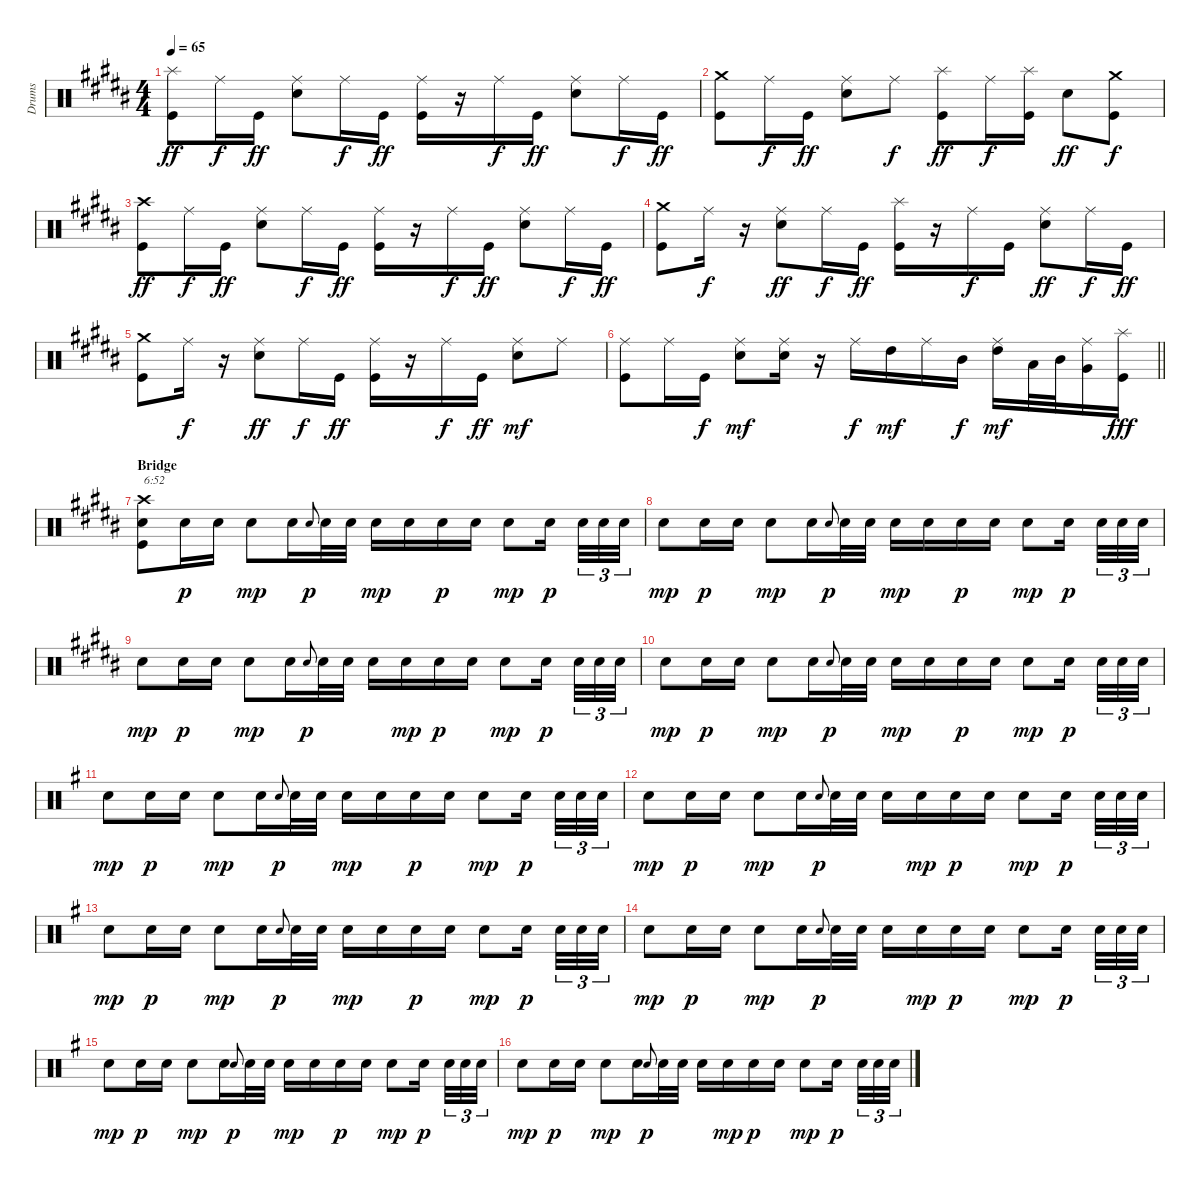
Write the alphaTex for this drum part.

\track ("Drums" "Drums") {instrument percussion}
\staff {score}
\articulation defaults
\ts (4 4)
\tempo 65
\clef neutral
\ks b
("Splash (hit)" "Kick (hit)").8{dy ff} "Ride (middle)".16{dy f} "Kick (hit)".16{dy ff} ("Ride (middle)" "Electric Snare (hit)").8 "Ride (middle)".16{dy f} "Kick (hit)".16{dy ff} ("Ride (middle)" "Kick (hit)").16 r.16 "Ride (middle)".16{dy f} "Kick (hit)".16{dy ff} ("Ride (middle)" "Electric Snare (hit)").8 "Ride (middle)".16{dy f} "Kick (hit)".16{dy ff} |
("Crash medium (hit)" "Kick (hit)").8 "Ride (middle)".16{dy f} "Kick (hit)".16{dy ff} ("Ride (middle)" "Electric Snare (hit)").8 "Ride (middle)".8{dy f} ("Splash (hit)" "Kick (hit)").8{dy ff} "Ride (middle)".16{dy f} ("Splash (hit)" "Kick (hit)").16 "Electric Snare (hit)".8{dy ff} ("Crash medium (hit)" "Kick (hit)").8{dy f} |
("Crash high (hit)" "Kick (hit)").8{dy ff} "Ride (middle)".16{dy f} "Kick (hit)".16{dy ff} ("Ride (middle)" "Electric Snare (hit)").8 "Ride (middle)".16{dy f} "Kick (hit)".16{dy ff} ("Ride (middle)" "Kick (hit)").16 r.16 "Ride (middle)".16{dy f} "Kick (hit)".16{dy ff} ("Ride (middle)" "Electric Snare (hit)").8 "Ride (middle)".16{dy f} "Kick (hit)".16{dy ff} |
("Crash medium (hit)" "Kick (hit)").8 "Ride (middle)".16{dy f} r.16 ("Ride (middle)" "Electric Snare (hit)").8{dy ff} "Ride (middle)".16{dy f} "Kick (hit)".16{dy ff} ("Splash (hit)" "Kick (hit)").16 r.16 "Ride (middle)".16{dy f} "Kick (hit)".16 ("Ride (middle)" "Electric Snare (hit)").8{dy ff} "Ride (middle)".16{dy f} "Kick (hit)".16{dy ff} |
("Crash medium (hit)" "Kick (hit)").8 "Ride (middle)".16{dy f} r.16 ("Ride (middle)" "Electric Snare (hit)").8{dy ff} "Ride (middle)".16{dy f} "Kick (hit)".16{dy ff} ("Ride (middle)" "Kick (hit)").16 r.16 "Ride (middle)".16{dy f} "Kick (hit)".16{dy ff} ("Ride (middle)" "Electric Snare (hit)").8{dy mf} "Ride (middle)".8 |
\barLineRight lightlight
("Ride (middle)" "Kick (hit)").8 "Ride (middle)".16 "Kick (hit)".16{dy f} ("Ride (middle)" "Electric Snare (hit)").8{dy mf} ("Ride (middle)" "Electric Snare (hit)").16 r.16 "Ride (middle)".16{dy f} "High Tom (hit)".16{dy mf} "Ride (middle)".16 "Mid Tom (hit)".16{dy f} ("Ride (middle)" "High Tom (hit)").16{dy mf} "Low Tom (hit)".32 "Mid Tom (hit)".32 ("Ride (middle)" "Very Low Tom (hit)").16 ("Splash (hit)" "Kick (hit)").16{dy fff} |
\section ("" "Bridge")
("Crash high (hit)" "Electric Snare (hit)" "Kick (hit)").8{txt "6:52" volume 9} "Electric Snare (hit)".16{dy p} "Electric Snare (hit)".16 "Electric Snare (hit)".8{dy mp} "Electric Snare (hit)".16 "Electric Snare (hit)".8{gr onbeat dy p} "Electric Snare (hit)".32 "Electric Snare (hit)".32 "Electric Snare (hit)".16{dy mp} "Electric Snare (hit)".16 "Electric Snare (hit)".16{dy p} "Electric Snare (hit)".16 "Electric Snare (hit)".8{dy mp} "Electric Snare (hit)".16{dy p beam splitsecondary} "Electric Snare (hit)".32{tu (3 2)} "Electric Snare (hit)".32{tu (3 2)} "Electric Snare (hit)".32{tu (3 2)} |
"Electric Snare (hit)".8{dy mp} "Electric Snare (hit)".16{dy p} "Electric Snare (hit)".16 "Electric Snare (hit)".8{dy mp} "Electric Snare (hit)".16 "Electric Snare (hit)".8{gr onbeat dy p} "Electric Snare (hit)".32 "Electric Snare (hit)".32 "Electric Snare (hit)".16{dy mp} "Electric Snare (hit)".16 "Electric Snare (hit)".16{dy p} "Electric Snare (hit)".16 "Electric Snare (hit)".8{dy mp} "Electric Snare (hit)".16{dy p beam splitsecondary} "Electric Snare (hit)".32{tu (3 2)} "Electric Snare (hit)".32{tu (3 2)} "Electric Snare (hit)".32{tu (3 2)} |
"Electric Snare (hit)".8{dy mp} "Electric Snare (hit)".16{dy p} "Electric Snare (hit)".16 "Electric Snare (hit)".8{dy mp} "Electric Snare (hit)".16 "Electric Snare (hit)".8{gr onbeat dy p} "Electric Snare (hit)".32 "Electric Snare (hit)".32 "Electric Snare (hit)".16 "Electric Snare (hit)".16{dy mp} "Electric Snare (hit)".16{dy p} "Electric Snare (hit)".16 "Electric Snare (hit)".8{dy mp} "Electric Snare (hit)".16{dy p beam splitsecondary} "Electric Snare (hit)".32{tu (3 2)} "Electric Snare (hit)".32{tu (3 2)} "Electric Snare (hit)".32{tu (3 2)} |
"Electric Snare (hit)".8{dy mp} "Electric Snare (hit)".16{dy p} "Electric Snare (hit)".16 "Electric Snare (hit)".8{dy mp} "Electric Snare (hit)".16 "Electric Snare (hit)".8{gr onbeat dy p} "Electric Snare (hit)".32 "Electric Snare (hit)".32 "Electric Snare (hit)".16{dy mp} "Electric Snare (hit)".16 "Electric Snare (hit)".16{dy p} "Electric Snare (hit)".16 "Electric Snare (hit)".8{dy mp} "Electric Snare (hit)".16{dy p beam splitsecondary} "Electric Snare (hit)".32{tu (3 2)} "Electric Snare (hit)".32{tu (3 2)} "Electric Snare (hit)".32{tu (3 2)} |
\ks eminor "Electric Snare (hit)".8{dy mp} "Electric Snare (hit)".16{dy p} "Electric Snare (hit)".16 "Electric Snare (hit)".8{dy mp} "Electric Snare (hit)".16 "Electric Snare (hit)".8{gr onbeat dy p} "Electric Snare (hit)".32 "Electric Snare (hit)".32 "Electric Snare (hit)".16{dy mp} "Electric Snare (hit)".16 "Electric Snare (hit)".16{dy p} "Electric Snare (hit)".16 "Electric Snare (hit)".8{dy mp} "Electric Snare (hit)".16{dy p beam splitsecondary} "Electric Snare (hit)".32{tu (3 2)} "Electric Snare (hit)".32{tu (3 2)} "Electric Snare (hit)".32{tu (3 2)}
|
"Electric Snare (hit)".8{dy mp} "Electric Snare (hit)".16{dy p} "Electric Snare (hit)".16 "Electric Snare (hit)".8{dy mp} "Electric Snare (hit)".16 "Electric Snare (hit)".8{gr onbeat dy p} "Electric Snare (hit)".32 "Electric Snare (hit)".32 "Electric Snare (hit)".16 "Electric Snare (hit)".16{dy mp} "Electric Snare (hit)".16{dy p} "Electric Snare (hit)".16 "Electric Snare (hit)".8{dy mp} "Electric Snare (hit)".16{dy p beam splitsecondary} "Electric Snare (hit)".32{tu (3 2)} "Electric Snare (hit)".32{tu (3 2)} "Electric Snare (hit)".32{tu (3 2)} |
"Electric Snare (hit)".8{dy mp} "Electric Snare (hit)".16{dy p} "Electric Snare (hit)".16 "Electric Snare (hit)".8{dy mp} "Electric Snare (hit)".16 "Electric Snare (hit)".8{gr onbeat dy p} "Electric Snare (hit)".32 "Electric Snare (hit)".32 "Electric Snare (hit)".16{dy mp} "Electric Snare (hit)".16 "Electric Snare (hit)".16{dy p} "Electric Snare (hit)".16 "Electric Snare (hit)".8{dy mp} "Electric Snare (hit)".16{dy p beam splitsecondary} "Electric Snare (hit)".32{tu (3 2)} "Electric Snare (hit)".32{tu (3 2)} "Electric Snare (hit)".32{tu (3 2)} |
"Electric Snare (hit)".8{dy mp} "Electric Snare (hit)".16{dy p} "Electric Snare (hit)".16 "Electric Snare (hit)".8{dy mp} "Electric Snare (hit)".16 "Electric Snare (hit)".8{gr onbeat dy p} "Electric Snare (hit)".32 "Electric Snare (hit)".32 "Electric Snare (hit)".16 "Electric Snare (hit)".16{dy mp} "Electric Snare (hit)".16{dy p} "Electric Snare (hit)".16 "Electric Snare (hit)".8{dy mp} "Electric Snare (hit)".16{dy p beam splitsecondary} "Electric Snare (hit)".32{tu (3 2)} "Electric Snare (hit)".32{tu (3 2)} "Electric Snare (hit)".32{tu (3 2)} |
"Electric Snare (hit)".8{dy mp} "Electric Snare (hit)".16{dy p} "Electric Snare (hit)".16 "Electric Snare (hit)".8{dy mp} "Electric Snare (hit)".16 "Electric Snare (hit)".8{gr onbeat dy p} "Electric Snare (hit)".32 "Electric Snare (hit)".32 "Electric Snare (hit)".16{dy mp} "Electric Snare (hit)".16 "Electric Snare (hit)".16{dy p} "Electric Snare (hit)".16 "Electric Snare (hit)".8{dy mp} "Electric Snare (hit)".16{dy p beam splitsecondary} "Electric Snare (hit)".32{tu (3 2)} "Electric Snare (hit)".32{tu (3 2)} "Electric Snare (hit)".32{tu (3 2)} |
"Electric Snare (hit)".8{dy mp} "Electric Snare (hit)".16{dy p} "Electric Snare (hit)".16 "Electric Snare (hit)".8{dy mp} "Electric Snare (hit)".16 "Electric Snare (hit)".8{gr onbeat dy p} "Electric Snare (hit)".32 "Electric Snare (hit)".32 "Electric Snare (hit)".16 "Electric Snare (hit)".16{dy mp} "Electric Snare (hit)".16{dy p} "Electric Snare (hit)".16 "Electric Snare (hit)".8{dy mp} "Electric Snare (hit)".16{dy p beam splitsecondary} "Electric Snare (hit)".32{tu (3 2)} "Electric Snare (hit)".32{tu (3 2)} "Electric Snare (hit)".32{tu (3 2)}
